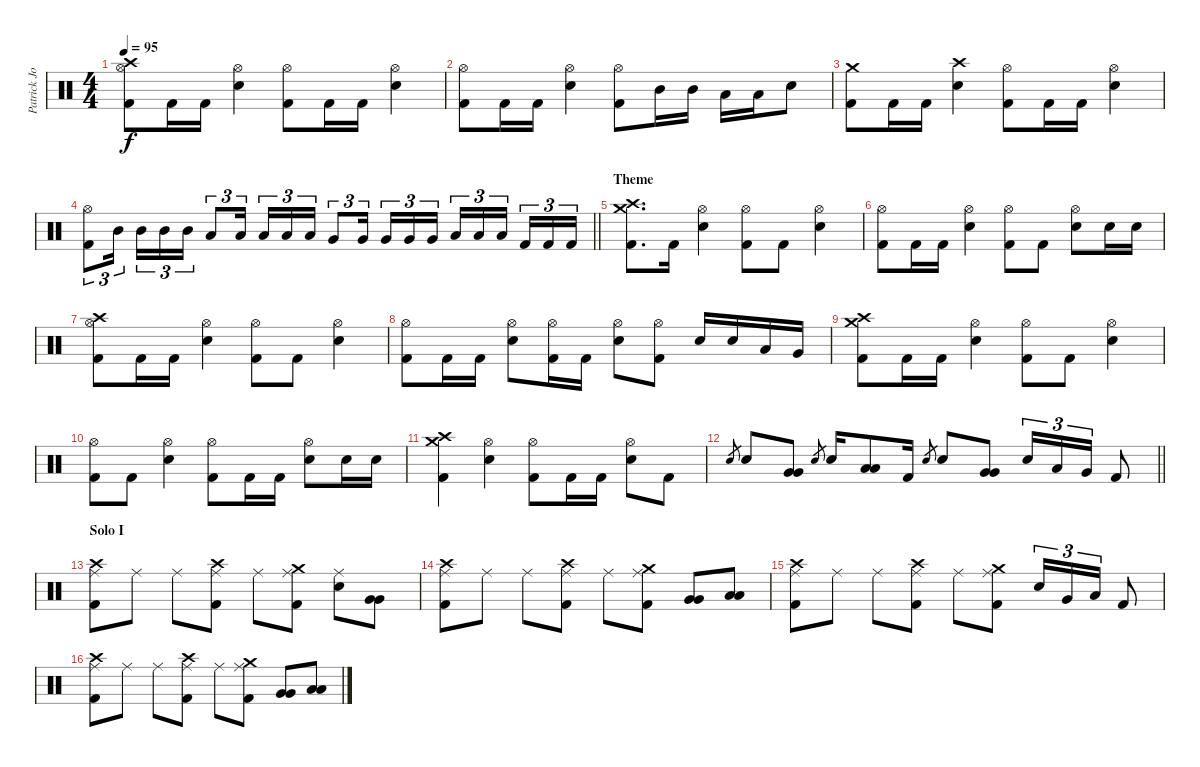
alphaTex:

\track ("Patrick Johansson" "Patrick Jo") {instrument percussion}
\staff {score}
\articulation defaults
\ts (4 4)
\tempo 95
\clef neutral
\ks c
("Crash high (hit)" "Hi-Hat (open)" "Kick (hit) 2").8{dy f} "Kick (hit) 2".16 "Kick (hit) 2".16 ("Hi-Hat (open)" "Snare (hit) 2").4 ("Hi-Hat (open)" "Kick (hit) 2").8 "Kick (hit) 2".16 "Kick (hit) 2".16 ("Hi-Hat (open)" "Snare (hit) 2").4 |
("Hi-Hat (open)" "Kick (hit) 2").8 "Kick (hit) 2".16 "Kick (hit) 2".16 ("Hi-Hat (open)" "Snare (hit) 2").4 ("Hi-Hat (open)" "Kick (hit) 2").8 "Mid Tom (hit)".16 "Mid Tom (hit)".16 "Low Tom (hit)".16 "Low Tom (hit)".16 "Snare (hit) 2".8 |
("Crash medium (hit)" "Kick (hit) 2").8 "Kick (hit) 2".16 "Kick (hit) 2".16 ("Crash high (hit)" "Snare (hit) 2").4 ("Hi-Hat (open)" "Kick (hit) 2").8 "Kick (hit) 2".16 "Kick (hit) 2".16 ("Hi-Hat (open)" "Snare (hit) 2").4 |
\barLineRight lightlight
("Hi-Hat (open)" "Kick (hit) 2").8{tu (3 2)} "Mid Tom (hit)".16{tu (3 2) beam splitsecondary} "Mid Tom (hit)".16{tu (3 2)} "Mid Tom (hit)".16{tu (3 2)} "Mid Tom (hit)".16{tu (3 2)} "Low Tom (hit)".8{tu (3 2)} "Low Tom (hit)".16{tu (3 2) beam splitsecondary} "Low Tom (hit)".16{tu (3 2)} "Low Tom (hit)".16{tu (3 2)} "Low Tom (hit)".16{tu (3 2)} "Very Low Tom (hit)".8{tu (3 2)} "Very Low Tom (hit)".16{tu (3 2) beam splitsecondary} "Very Low Tom (hit)".16{tu (3 2)} "Very Low Tom (hit)".16{tu (3 2)} "Very Low Tom (hit)".16{tu (3 2)} "Low Floor Tom (hit)".16{tu (3 2)} "Low Floor Tom (hit)".16{tu (3 2)} "Low Floor Tom (hit)".16{tu (3 2) beam splitsecondary} "Kick (hit) 2".16{tu (3 2)} "Kick (hit) 2".16{tu (3 2)} "Kick (hit) 2".16{tu (3 2)} |
\section ("" "Theme")
("Crash high (hit)" "Crash medium (hit)" "Kick (hit) 2").8{d} "Kick (hit) 2".16 ("Hi-Hat (open)" "Snare (hit) 2").4 ("Hi-Hat (open)" "Kick (hit) 2").8 "Kick (hit) 2".8 ("Hi-Hat (open)" "Snare (hit) 2").4 |
("Hi-Hat (open)" "Kick (hit) 2").8 "Kick (hit) 2".16 "Kick (hit) 2".16 ("Hi-Hat (open)" "Snare (hit) 2").4 ("Hi-Hat (open)" "Kick (hit) 2").8 "Kick (hit) 2".8 ("Hi-Hat (open)" "Snare (hit) 2").8 "Snare (hit) 2".16 "Snare (hit) 2".16 |
("Crash high (hit)" "Hi-Hat (open)" "Kick (hit) 2").8 "Kick (hit) 2".16 "Kick (hit) 2".16 ("Hi-Hat (open)" "Snare (hit) 2").4 ("Hi-Hat (open)" "Kick (hit) 2").8 "Kick (hit) 2".8 ("Hi-Hat (open)" "Snare (hit) 2").4 |
("Hi-Hat (open)" "Kick (hit) 2").8 "Kick (hit) 2".16 "Kick (hit) 2".16 ("Hi-Hat (open)" "Snare (hit) 2").8 ("Hi-Hat (open)" "Kick (hit) 2").16 "Kick (hit) 2".16 ("Hi-Hat (open)" "Snare (hit) 2").8 ("Hi-Hat (open)" "Kick (hit) 2").8 "Snare (hit) 2".16 "Snare (hit) 2".16 "Low Tom (hit)".16 "Very Low Tom (hit)".16 |
("Crash high (hit)" "Crash medium (hit)" "Kick (hit) 2").8 "Kick (hit) 2".16 "Kick (hit) 2".16 ("Hi-Hat (open)" "Snare (hit) 2").4 ("Hi-Hat (open)" "Kick (hit) 2").8 "Kick (hit) 2".8 ("Hi-Hat (open)" "Snare (hit) 2").4 |
("Hi-Hat (open)" "Kick (hit) 2").8 "Kick (hit) 2".8 ("Hi-Hat (open)" "Snare (hit) 2").4 ("Hi-Hat (open)" "Kick (hit) 2").8 "Kick (hit) 2".16 "Kick (hit) 2".16 ("Hi-Hat (open)" "Snare (hit) 2").8 "Snare (hit) 2".16 "Snare (hit) 2".16 |
("Crash medium (hit)" "Crash high (hit)" "Kick (hit) 2").4 ("Hi-Hat (open)" "Snare (hit) 2").4 ("Hi-Hat (open)" "Kick (hit) 2").8 "Kick (hit) 2".16 "Kick (hit) 2".16 ("Hi-Hat (open)" "Snare (hit) 2").8 "Kick (hit) 2".8 |
\barLineRight lightlight "Snare (hit) 2".8{gr} "Snare (hit) 2".8
("Very Low Tom (hit)" "Very Low Tom (hit)").8 "Snare (hit) 2".8{gr} "Snare (hit) 2".16 ("Low Floor Tom (hit)" "Low Floor Tom (hit)").8 "Kick (hit) 2".16 "Snare (hit) 2".8{gr} "Snare (hit) 2".8 ("Very Low Tom (hit)" "Very Low Tom (hit)").8 "Snare (hit) 2".16{tu (3 2)} "Low Tom (hit)".16{tu (3 2)} "Very Low Tom (hit)".16{tu (3 2)} "Kick (hit) 2".8 |
\section ("" "Solo I")
("Crash high (hit)" "Ride (middle)" "Kick (hit) 2").8 "Ride (middle)".8 "Ride (middle)".8 ("Crash high (hit)" "Ride (middle)" "Kick (hit) 2").8 "Ride (middle)".8 ("Crash medium (hit)" "Ride (middle)" "Kick (hit) 2").8 ("Ride (middle)" "Snare (hit) 2").8 ("Very Low Tom (hit)" "Very Low Tom (hit)").8 |
("Crash high (hit)" "Ride (middle)" "Kick (hit) 2").8 "Ride (middle)".8 "Ride (middle)".8 ("Crash high (hit)" "Ride (middle)" "Kick (hit) 2").8 "Ride (middle)".8 ("Crash medium (hit)" "Ride (middle)" "Kick (hit) 2").8 ("Very Low Tom (hit)" "Very Low Tom (hit)").8 ("Low Floor Tom (hit)" "Low Floor Tom (hit)").8 |
("Crash high (hit)" "Ride (middle)" "Kick (hit) 2").8 "Ride (middle)".8 "Ride (middle)".8 ("Crash high (hit)" "Ride (middle)" "Kick (hit) 2").8 "Ride (middle)".8 ("Crash medium (hit)" "Ride (middle)" "Kick (hit) 2").8 "Snare (hit) 2".16{tu (3 2)} "Very Low Tom (hit)".16{tu (3 2)} "Low Floor Tom (hit)".16{tu (3 2)} "Kick (hit) 2".8 |
("Crash high (hit)" "Ride (middle)" "Kick (hit) 2").8 "Ride (middle)".8 "Ride (middle)".8 ("Crash high (hit)" "Ride (middle)" "Kick (hit) 2").8 "Ride (middle)".8 ("Crash medium (hit)" "Ride (middle)" "Kick (hit) 2").8 ("Very Low Tom (hit)" "Very Low Tom (hit)").8 ("Low Floor Tom (hit)" "Low Floor Tom (hit)").8
